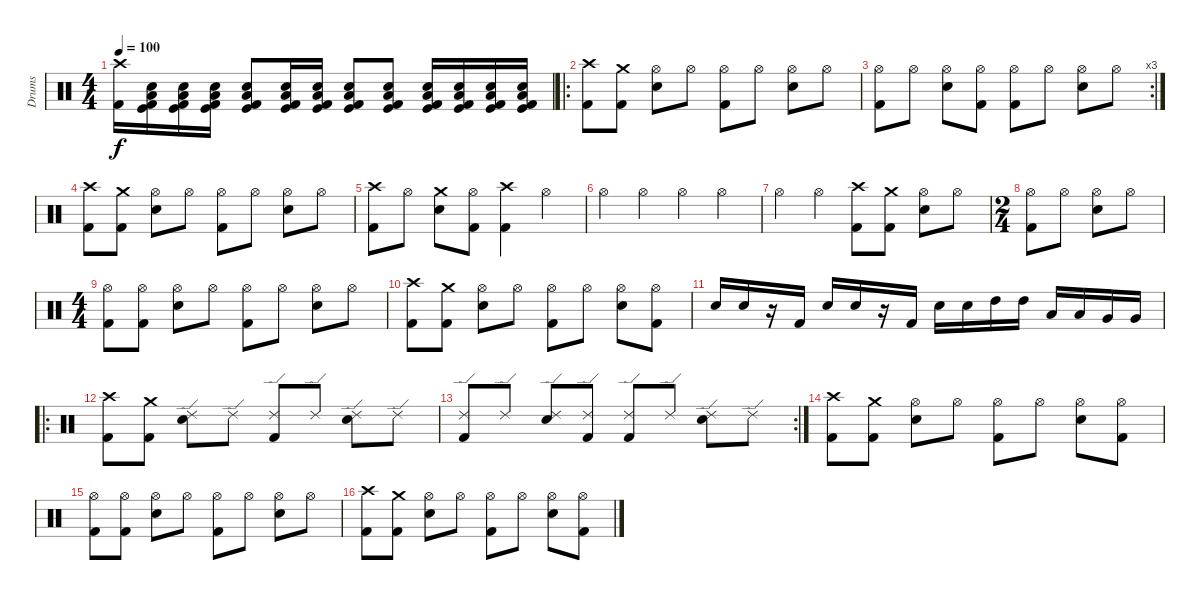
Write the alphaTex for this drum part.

\track ("Drums" "Drums") {instrument percussion}
\staff {score}
\articulation defaults
\ts (4 4)
\tempo 100
\clef neutral
\ks c
("Crash high (hit)" "Kick (hit) 2").16{dy f} ("Kick (hit)" "Low Floor Tom (hit)" "Snare (hit) 2" "Kick (hit) 2").16 ("Kick (hit)" "Low Floor Tom (hit)" "Snare (hit) 2" "Kick (hit) 2").16 ("Kick (hit)" "Low Floor Tom (hit)" "Snare (hit) 2" "Kick (hit) 2").16 ("Kick (hit)" "Low Floor Tom (hit)" "Snare (hit) 2" "Kick (hit) 2").8 ("Kick (hit)" "Low Floor Tom (hit)" "Snare (hit) 2" "Kick (hit) 2").16 ("Kick (hit)" "Low Floor Tom (hit)" "Snare (hit) 2" "Kick (hit) 2").16 ("Kick (hit)" "Low Floor Tom (hit)" "Snare (hit) 2" "Kick (hit) 2").8 ("Kick (hit)" "Low Floor Tom (hit)" "Snare (hit) 2" "Kick (hit) 2").8 ("Kick (hit)" "Low Floor Tom (hit)" "Snare (hit) 2" "Kick (hit) 2").16 ("Kick (hit)" "Low Floor Tom (hit)" "Snare (hit) 2" "Kick (hit) 2").16 ("Kick (hit)" "Low Floor Tom (hit)" "Snare (hit) 2" "Kick (hit) 2").16 ("Kick (hit)" "Low Floor Tom (hit)" "Snare (hit) 2" "Kick (hit) 2").16 |
\ro
("Crash high (hit)" "Kick (hit) 2").8 ("Crash medium (hit)" "Kick (hit) 2").8 ("Hi-Hat (open)" "Snare (hit) 2").8 "Hi-Hat (open)".8 ("Hi-Hat (open)" "Kick (hit) 2").8 "Hi-Hat (open)".8 ("Hi-Hat (open)" "Snare (hit) 2").8 "Hi-Hat (open)".8 |
\rc 3
("Hi-Hat (open)" "Kick (hit) 2").8 "Hi-Hat (open)".8 ("Hi-Hat (open)" "Snare (hit) 2").8 ("Hi-Hat (open)" "Kick (hit) 2").8 ("Hi-Hat (open)" "Kick (hit) 2").8 "Hi-Hat (open)".8 ("Hi-Hat (open)" "Snare (hit) 2").8 "Hi-Hat (open)".8 |
("Crash high (hit)" "Kick (hit) 2").8 ("Crash medium (hit)" "Kick (hit) 2").8 ("Hi-Hat (open)" "Snare (hit) 2").8 "Hi-Hat (open)".8 ("Hi-Hat (open)" "Kick (hit) 2").8 "Hi-Hat (open)".8 ("Hi-Hat (open)" "Snare (hit) 2").8 "Hi-Hat (open)".8 |
("Crash high (hit)" "Kick (hit) 2").8 "Hi-Hat (open)".8 ("Crash medium (hit)" "Snare (hit) 2").8 ("Hi-Hat (open)" "Kick (hit) 2").8 ("Crash high (hit)" "Kick (hit) 2").4 "Hi-Hat (open)".4 |
"Hi-Hat (open)".4 "Hi-Hat (open)".4 "Hi-Hat (open)".4 "Hi-Hat (open)".4 |
"Hi-Hat (open)".4 "Hi-Hat (open)".4 ("Crash high (hit)" "Kick (hit) 2").8 ("Crash medium (hit)" "Kick (hit) 2").8 ("Hi-Hat (open)" "Snare (hit) 2").8 "Hi-Hat (open)".8 |
\ts (2 4)
("Hi-Hat (open)" "Kick (hit) 2").8 "Hi-Hat (open)".8 ("Hi-Hat (open)" "Snare (hit) 2").8 "Hi-Hat (open)".8 |
\ts (4 4)
("Hi-Hat (open)" "Kick (hit) 2").8 ("Hi-Hat (open)" "Kick (hit) 2").8 ("Hi-Hat (open)" "Snare (hit) 2").8 "Hi-Hat (open)".8 ("Hi-Hat (open)" "Kick (hit) 2").8 "Hi-Hat (open)".8 ("Hi-Hat (open)" "Snare (hit) 2").8 "Hi-Hat (open)".8 |
("Crash high (hit)" "Kick (hit) 2").8 ("Crash medium (hit)" "Kick (hit) 2").8 ("Hi-Hat (open)" "Snare (hit) 2").8 "Hi-Hat (open)".8 ("Hi-Hat (open)" "Kick (hit) 2").8 "Hi-Hat (open)".8 ("Hi-Hat (open)" "Snare (hit) 2").8 ("Hi-Hat (open)" "Kick (hit) 2").8 |
"Snare (hit) 2".16 "Snare (hit) 2".16 r.16 "Kick (hit) 2".16 "Snare (hit) 2".16 "Snare (hit) 2".16 r.16 "Kick (hit) 2".16 "Snare (hit) 2".16 "Snare (hit) 2".16 "High Tom (hit)".16 "High Tom (hit)".16 "Low Tom (hit)".16 "Low Tom (hit)".16 "Very Low Tom (hit)".16 "Very Low Tom (hit)".16 |
\ro
("Crash high (hit)" "Kick (hit) 2").8 ("Crash medium (hit)" "Kick (hit) 2").8 ("Ride (edge) 2" "Snare (hit) 2").8 "Ride (edge) 2".8 ("Ride (edge) 2" "Kick (hit) 2").8 "Ride (edge) 2".8 ("Ride (edge) 2" "Snare (hit) 2").8 "Ride (edge) 2".8 |
\rc 2
("Ride (edge) 2" "Kick (hit) 2").8 "Ride (edge) 2".8 ("Ride (edge) 2" "Snare (hit) 2").8 ("Ride (edge) 2" "Kick (hit) 2").8 ("Ride (edge) 2" "Kick (hit) 2").8 "Ride (edge) 2".8 ("Ride (edge) 2" "Snare (hit) 2").8 "Ride (edge) 2".8 |
("Crash high (hit)" "Kick (hit) 2").8 ("Crash medium (hit)" "Kick (hit) 2").8 ("Hi-Hat (open)" "Snare (hit) 2").8 "Hi-Hat (open)".8 ("Hi-Hat (open)" "Kick (hit) 2").8 "Hi-Hat (open)".8 ("Hi-Hat (open)" "Snare (hit) 2").8 ("Hi-Hat (open)" "Kick (hit) 2").8 |
("Hi-Hat (open)" "Kick (hit) 2").8 ("Hi-Hat (open)" "Kick (hit) 2").8 ("Hi-Hat (open)" "Snare (hit) 2").8 "Hi-Hat (open)".8 ("Hi-Hat (open)" "Kick (hit) 2").8 "Hi-Hat (open)".8 ("Hi-Hat (open)" "Snare (hit) 2").8 "Hi-Hat (open)".8 |
("Crash high (hit)" "Kick (hit) 2").8 ("Crash medium (hit)" "Kick (hit) 2").8 ("Hi-Hat (open)" "Snare (hit) 2").8 "Hi-Hat (open)".8 ("Hi-Hat (open)" "Kick (hit) 2").8 "Hi-Hat (open)".8 ("Hi-Hat (open)" "Snare (hit) 2").8 ("Hi-Hat (open)" "Kick (hit) 2").8
